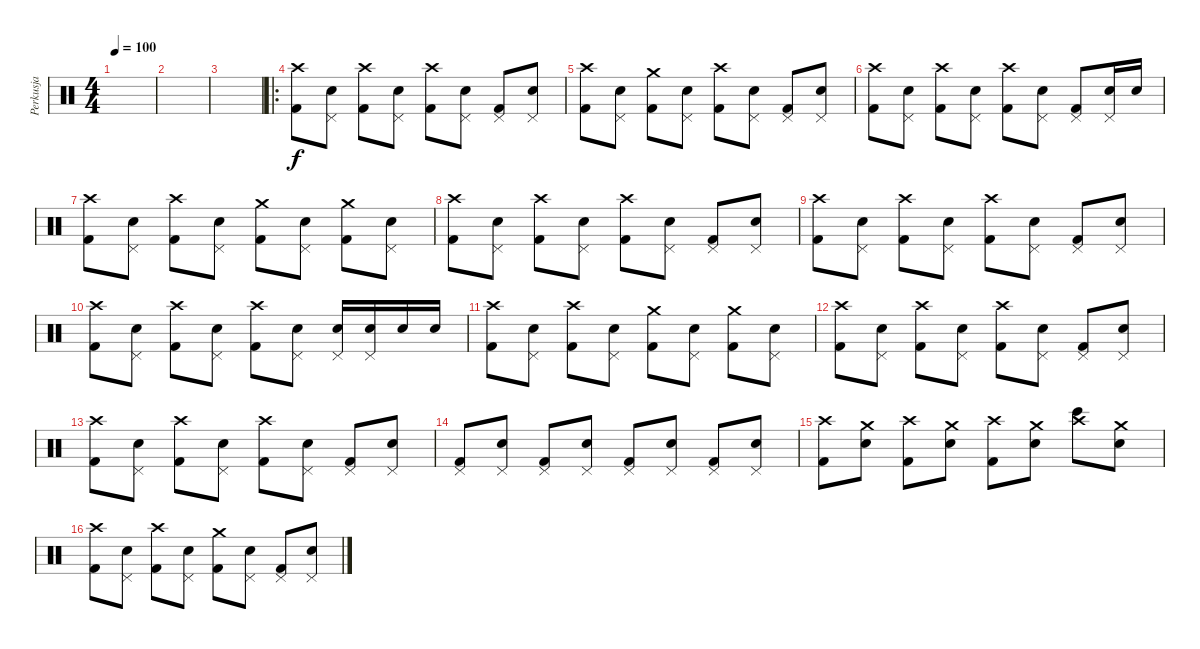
\track ("Perkusja" "Perkusja") {instrument percussion}
\staff {score}
\articulation defaults
\ts (4 4)
\tempo 100
\clef neutral
\ks c
|
|
|
\ro
("Kick (hit) 2" "Crash high (hit)").8 ("Electric Snare (hit)" "Pedal Hi-Hat (hit)").8 ("Kick (hit) 2" "Crash high (hit)").8 ("Electric Snare (hit)" "Pedal Hi-Hat (hit)").8 ("Kick (hit) 2" "Crash high (hit)").8 ("Electric Snare (hit)" "Pedal Hi-Hat (hit)").8 ("Kick (hit) 2" "Pedal Hi-Hat (hit)").8 ("Electric Snare (hit)" "Pedal Hi-Hat (hit)").8 |
("Kick (hit) 2" "Crash high (hit)").8 ("Electric Snare (hit)" "Pedal Hi-Hat (hit)").8 ("Kick (hit) 2" "Crash medium (hit)").8 ("Electric Snare (hit)" "Pedal Hi-Hat (hit)").8 ("Kick (hit) 2" "Crash high (hit)").8 ("Electric Snare (hit)" "Pedal Hi-Hat (hit)").8 ("Kick (hit) 2" "Pedal Hi-Hat (hit)").8 ("Electric Snare (hit)" "Pedal Hi-Hat (hit)").8 |
("Kick (hit) 2" "Crash high (hit)").8 ("Electric Snare (hit)" "Pedal Hi-Hat (hit)").8 ("Kick (hit) 2" "Crash high (hit)").8 ("Electric Snare (hit)" "Pedal Hi-Hat (hit)").8 ("Kick (hit) 2" "Crash high (hit)").8 ("Electric Snare (hit)" "Pedal Hi-Hat (hit)").8 ("Kick (hit) 2" "Pedal Hi-Hat (hit)").8 ("Electric Snare (hit)" "Pedal Hi-Hat (hit)").16 "Electric Snare (hit)".16 |
("Kick (hit) 2" "Crash high (hit)").8 ("Electric Snare (hit)" "Pedal Hi-Hat (hit)").8 ("Kick (hit) 2" "Crash high (hit)").8 ("Electric Snare (hit)" "Pedal Hi-Hat (hit)").8 ("Kick (hit) 2" "Crash medium (hit)").8 ("Electric Snare (hit)" "Pedal Hi-Hat (hit)").8 ("Kick (hit) 2" "Crash medium (hit)").8 ("Electric Snare (hit)" "Pedal Hi-Hat (hit)").8 |
("Kick (hit) 2" "Crash high (hit)").8 ("Electric Snare (hit)" "Pedal Hi-Hat (hit)").8 ("Kick (hit) 2" "Crash high (hit)").8 ("Electric Snare (hit)" "Pedal Hi-Hat (hit)").8 ("Kick (hit) 2" "Crash high (hit)").8 ("Electric Snare (hit)" "Pedal Hi-Hat (hit)").8 ("Kick (hit) 2" "Pedal Hi-Hat (hit)").8 ("Electric Snare (hit)" "Pedal Hi-Hat (hit)").8 |
("Kick (hit) 2" "Crash high (hit)").8 ("Electric Snare (hit)" "Pedal Hi-Hat (hit)").8 ("Kick (hit) 2" "Crash high (hit)").8 ("Electric Snare (hit)" "Pedal Hi-Hat (hit)").8 ("Kick (hit) 2" "Crash high (hit)").8 ("Electric Snare (hit)" "Pedal Hi-Hat (hit)").8 ("Kick (hit) 2" "Pedal Hi-Hat (hit)").8 ("Electric Snare (hit)" "Pedal Hi-Hat (hit)").8 |
("Kick (hit) 2" "Crash high (hit)").8 ("Electric Snare (hit)" "Pedal Hi-Hat (hit)").8 ("Kick (hit) 2" "Crash high (hit)").8 ("Electric Snare (hit)" "Pedal Hi-Hat (hit)").8 ("Kick (hit) 2" "Crash high (hit)").8 ("Electric Snare (hit)" "Pedal Hi-Hat (hit)").8 ("Electric Snare (hit)" "Pedal Hi-Hat (hit)").16 ("Electric Snare (hit)" "Pedal Hi-Hat (hit)").16 "Electric Snare (hit)".16 "Electric Snare (hit)".16 |
("Kick (hit) 2" "Crash high (hit)").8 ("Electric Snare (hit)" "Pedal Hi-Hat (hit)").8 ("Kick (hit) 2" "Crash high (hit)").8 ("Electric Snare (hit)" "Pedal Hi-Hat (hit)").8 ("Kick (hit) 2" "Crash medium (hit)").8 ("Electric Snare (hit)" "Pedal Hi-Hat (hit)").8 ("Kick (hit) 2" "Crash medium (hit)").8 ("Electric Snare (hit)" "Pedal Hi-Hat (hit)").8 |
("Kick (hit) 2" "Crash high (hit)").8 ("Electric Snare (hit)" "Pedal Hi-Hat (hit)").8 ("Kick (hit) 2" "Crash high (hit)").8 ("Electric Snare (hit)" "Pedal Hi-Hat (hit)").8 ("Kick (hit) 2" "Crash high (hit)").8 ("Electric Snare (hit)" "Pedal Hi-Hat (hit)").8 ("Kick (hit) 2" "Pedal Hi-Hat (hit)").8 ("Electric Snare (hit)" "Pedal Hi-Hat (hit)").8 |
("Kick (hit) 2" "Crash high (hit)").8 ("Electric Snare (hit)" "Pedal Hi-Hat (hit)").8 ("Kick (hit) 2" "Crash high (hit)").8 ("Electric Snare (hit)" "Pedal Hi-Hat (hit)").8 ("Kick (hit) 2" "Crash high (hit)").8 ("Electric Snare (hit)" "Pedal Hi-Hat (hit)").8 ("Kick (hit) 2" "Pedal Hi-Hat (hit)").8 ("Electric Snare (hit)" "Pedal Hi-Hat (hit)").8 |
("Kick (hit) 2" "Pedal Hi-Hat (hit)").8 ("Electric Snare (hit)" "Pedal Hi-Hat (hit)").8 ("Kick (hit) 2" "Pedal Hi-Hat (hit)").8 ("Electric Snare (hit)" "Pedal Hi-Hat (hit)").8 ("Kick (hit) 2" "Pedal Hi-Hat (hit)").8 ("Electric Snare (hit)" "Pedal Hi-Hat (hit)").8 ("Kick (hit) 2" "Pedal Hi-Hat (hit)").8 ("Electric Snare (hit)" "Pedal Hi-Hat (hit)").8 |
("Kick (hit) 2" "Crash high (hit)").8 ("Electric Snare (hit)" "Crash medium (hit)").8 ("Kick (hit) 2" "Crash high (hit)").8 ("Electric Snare (hit)" "Crash medium (hit)").8 ("Kick (hit) 2" "Crash high (hit)").8 ("Electric Snare (hit)" "Crash medium (hit)").8 ("Bongo High (hit)" "Crash high (hit)").8 ("Electric Snare (hit)" "Crash medium (hit)").8 |
("Kick (hit) 2" "Crash high (hit)").8 ("Electric Snare (hit)" "Pedal Hi-Hat (hit)").8 ("Kick (hit) 2" "Crash high (hit)").8 ("Electric Snare (hit)" "Pedal Hi-Hat (hit)").8 ("Kick (hit) 2" "Crash medium (hit)").8 ("Electric Snare (hit)" "Pedal Hi-Hat (hit)").8 ("Kick (hit) 2" "Pedal Hi-Hat (hit)").8 ("Electric Snare (hit)" "Pedal Hi-Hat (hit)").8
